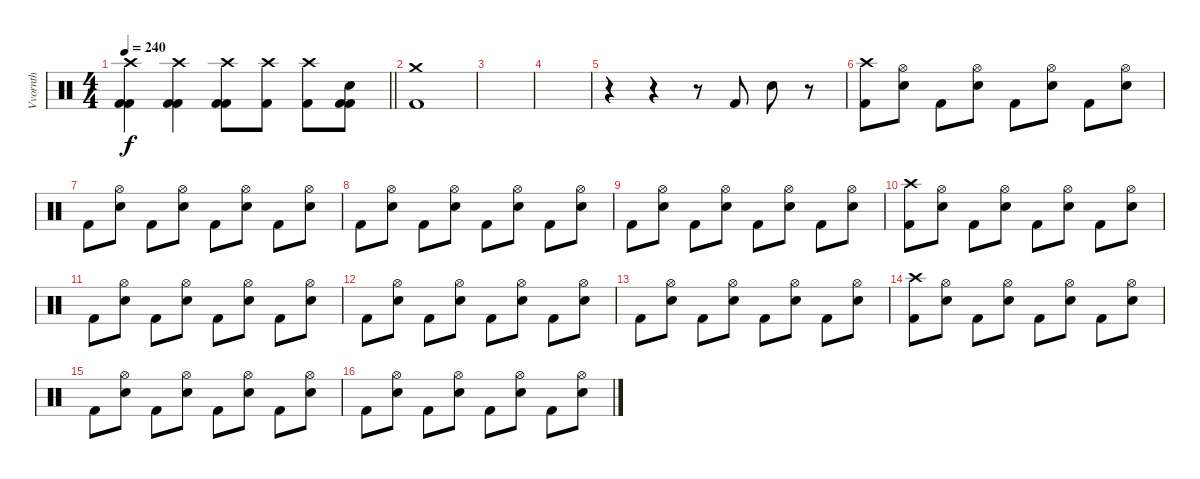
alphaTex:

\track ("Vvornth" "Vvornth") {instrument percussion}
\staff {score}
\articulation defaults
\ts (4 4)
\tempo 240
\clef neutral
\barLineRight lightlight
\ks c
("Crash high (hit)" "Kick (hit) 2" "Kick (hit) 2").4{dy f} ("Crash high (hit)" "Kick (hit) 2" "Kick (hit) 2").4 ("Crash high (hit)" "Kick (hit) 2" "Kick (hit) 2").8 ("Crash high (hit)" "Kick (hit) 2").8 ("Crash high (hit)" "Kick (hit) 2").8 ("Kick (hit) 2" "Snare (hit)" "Kick (hit) 2").8 |
("Crash medium (hit)" "Kick (hit) 2").1 |
|
|
r.4 r.4 r.8 "Kick (hit) 2".8 "Snare (hit) 2".8 r.8 |
("Crash high (hit)" "Kick (hit) 2").8 ("Hi-Hat (open)" "Snare (hit) 2").8 "Kick (hit) 2".8 ("Hi-Hat (open)" "Snare (hit) 2").8 "Kick (hit) 2".8 ("Hi-Hat (open)" "Snare (hit) 2").8 "Kick (hit) 2".8 ("Hi-Hat (open)" "Snare (hit) 2").8 |
"Kick (hit) 2".8 ("Hi-Hat (open)" "Snare (hit) 2").8 "Kick (hit) 2".8 ("Hi-Hat (open)" "Snare (hit) 2").8 "Kick (hit) 2".8 ("Hi-Hat (open)" "Snare (hit) 2").8 "Kick (hit) 2".8 ("Hi-Hat (open)" "Snare (hit) 2").8 |
"Kick (hit) 2".8 ("Hi-Hat (open)" "Snare (hit) 2").8 "Kick (hit) 2".8 ("Hi-Hat (open)" "Snare (hit) 2").8 "Kick (hit) 2".8 ("Hi-Hat (open)" "Snare (hit) 2").8 "Kick (hit) 2".8 ("Hi-Hat (open)" "Snare (hit) 2").8 |
"Kick (hit) 2".8 ("Hi-Hat (open)" "Snare (hit) 2").8 "Kick (hit) 2".8 ("Hi-Hat (open)" "Snare (hit) 2").8 "Kick (hit) 2".8 ("Hi-Hat (open)" "Snare (hit) 2").8 "Kick (hit) 2".8 ("Hi-Hat (open)" "Snare (hit) 2").8 |
("Crash high (hit)" "Kick (hit) 2").8 ("Hi-Hat (open)" "Snare (hit) 2").8 "Kick (hit) 2".8 ("Hi-Hat (open)" "Snare (hit) 2").8 "Kick (hit) 2".8 ("Hi-Hat (open)" "Snare (hit) 2").8 "Kick (hit) 2".8 ("Hi-Hat (open)" "Snare (hit) 2").8 |
"Kick (hit) 2".8 ("Hi-Hat (open)" "Snare (hit) 2").8 "Kick (hit) 2".8 ("Hi-Hat (open)" "Snare (hit) 2").8 "Kick (hit) 2".8 ("Hi-Hat (open)" "Snare (hit) 2").8 "Kick (hit) 2".8 ("Hi-Hat (open)" "Snare (hit) 2").8 |
"Kick (hit) 2".8 ("Hi-Hat (open)" "Snare (hit) 2").8 "Kick (hit) 2".8 ("Hi-Hat (open)" "Snare (hit) 2").8 "Kick (hit) 2".8 ("Hi-Hat (open)" "Snare (hit) 2").8 "Kick (hit) 2".8 ("Hi-Hat (open)" "Snare (hit) 2").8 |
"Kick (hit) 2".8 ("Hi-Hat (open)" "Snare (hit) 2").8 "Kick (hit) 2".8 ("Hi-Hat (open)" "Snare (hit) 2").8 "Kick (hit) 2".8 ("Hi-Hat (open)" "Snare (hit) 2").8 "Kick (hit) 2".8 ("Hi-Hat (open)" "Snare (hit) 2").8 |
("Crash high (hit)" "Kick (hit) 2").8 ("Hi-Hat (open)" "Snare (hit) 2").8 "Kick (hit) 2".8 ("Hi-Hat (open)" "Snare (hit) 2").8 "Kick (hit) 2".8 ("Hi-Hat (open)" "Snare (hit) 2").8 "Kick (hit) 2".8 ("Hi-Hat (open)" "Snare (hit) 2").8 |
"Kick (hit) 2".8 ("Hi-Hat (open)" "Snare (hit) 2").8 "Kick (hit) 2".8 ("Hi-Hat (open)" "Snare (hit) 2").8 "Kick (hit) 2".8 ("Hi-Hat (open)" "Snare (hit) 2").8 "Kick (hit) 2".8 ("Hi-Hat (open)" "Snare (hit) 2").8 |
"Kick (hit) 2".8 ("Hi-Hat (open)" "Snare (hit) 2").8 "Kick (hit) 2".8 ("Hi-Hat (open)" "Snare (hit) 2").8 "Kick (hit) 2".8 ("Hi-Hat (open)" "Snare (hit) 2").8 "Kick (hit) 2".8 ("Hi-Hat (open)" "Snare (hit) 2").8
